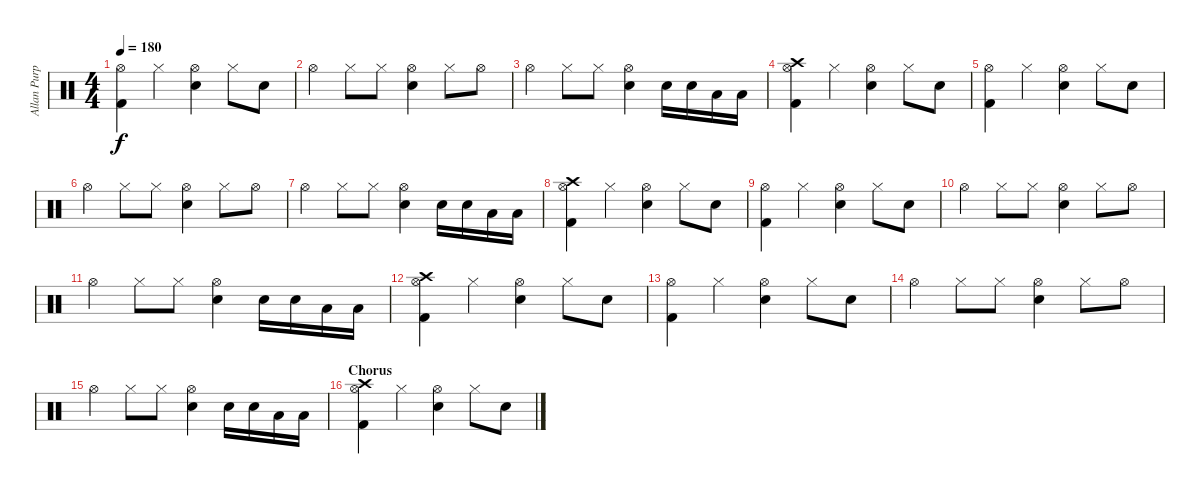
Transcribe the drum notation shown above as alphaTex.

\track ("Allan Purple" "Allan Purp") {instrument percussion}
\staff {score}
\articulation defaults
\ts (4 4)
\tempo 180
\clef neutral
\ks c
("Hi-Hat (open)" "Kick (hit) 2").4{dy f} "Hi-Hat (closed)".4 ("Hi-Hat (open)" "Snare (hit) 2").4 "Hi-Hat (closed)".8 "Snare (hit) 2".8 |
"Hi-Hat (open)".4 "Hi-Hat (closed)".8 "Hi-Hat (closed)".8 ("Hi-Hat (open)" "Snare (hit) 2").4 "Hi-Hat (closed)".8 "Hi-Hat (open)".8 |
"Hi-Hat (open)".4 "Hi-Hat (closed)".8 "Hi-Hat (closed)".8 ("Hi-Hat (open)" "Snare (hit) 2").4 "Electric Snare (hit)".16 "Electric Snare (hit)".16 "Low Tom (hit)".16 "Low Tom (hit)".16 |
("Crash high (hit)" "Hi-Hat (open)" "Kick (hit) 2").4 "Hi-Hat (closed)".4 ("Hi-Hat (open)" "Snare (hit) 2").4 "Hi-Hat (closed)".8 "Snare (hit) 2".8 |
("Hi-Hat (open)" "Kick (hit) 2").4 "Hi-Hat (closed)".4 ("Hi-Hat (open)" "Snare (hit) 2").4 "Hi-Hat (closed)".8 "Snare (hit) 2".8 |
"Hi-Hat (open)".4 "Hi-Hat (closed)".8 "Hi-Hat (closed)".8 ("Hi-Hat (open)" "Snare (hit) 2").4 "Hi-Hat (closed)".8 "Hi-Hat (open)".8 |
"Hi-Hat (open)".4 "Hi-Hat (closed)".8 "Hi-Hat (closed)".8 ("Hi-Hat (open)" "Snare (hit) 2").4 "Electric Snare (hit)".16 "Electric Snare (hit)".16 "Low Tom (hit)".16 "Low Tom (hit)".16 |
("Crash high (hit)" "Hi-Hat (open)" "Kick (hit) 2").4 "Hi-Hat (closed)".4 ("Hi-Hat (open)" "Snare (hit) 2").4 "Hi-Hat (closed)".8 "Snare (hit) 2".8 |
("Hi-Hat (open)" "Kick (hit) 2").4 "Hi-Hat (closed)".4 ("Hi-Hat (open)" "Snare (hit) 2").4 "Hi-Hat (closed)".8 "Snare (hit) 2".8 |
"Hi-Hat (open)".4 "Hi-Hat (closed)".8 "Hi-Hat (closed)".8 ("Hi-Hat (open)" "Snare (hit) 2").4 "Hi-Hat (closed)".8 "Hi-Hat (open)".8 |
"Hi-Hat (open)".4 "Hi-Hat (closed)".8 "Hi-Hat (closed)".8 ("Hi-Hat (open)" "Snare (hit) 2").4 "Electric Snare (hit)".16 "Electric Snare (hit)".16 "Low Tom (hit)".16 "Low Tom (hit)".16 |
("Crash high (hit)" "Hi-Hat (open)" "Kick (hit) 2").4 "Hi-Hat (closed)".4 ("Hi-Hat (open)" "Snare (hit) 2").4 "Hi-Hat (closed)".8 "Snare (hit) 2".8 |
("Hi-Hat (open)" "Kick (hit) 2").4 "Hi-Hat (closed)".4 ("Hi-Hat (open)" "Snare (hit) 2").4 "Hi-Hat (closed)".8 "Snare (hit) 2".8 |
"Hi-Hat (open)".4 "Hi-Hat (closed)".8 "Hi-Hat (closed)".8 ("Hi-Hat (open)" "Snare (hit) 2").4 "Hi-Hat (closed)".8 "Hi-Hat (open)".8 |
"Hi-Hat (open)".4 "Hi-Hat (closed)".8 "Hi-Hat (closed)".8 ("Hi-Hat (open)" "Snare (hit) 2").4 "Electric Snare (hit)".16 "Electric Snare (hit)".16 "Low Tom (hit)".16 "Low Tom (hit)".16 |
\section ("" "Chorus")
("Crash high (hit)" "Hi-Hat (open)" "Kick (hit) 2").4 "Hi-Hat (closed)".4 ("Hi-Hat (open)" "Snare (hit) 2").4 "Hi-Hat (closed)".8 "Snare (hit) 2".8
